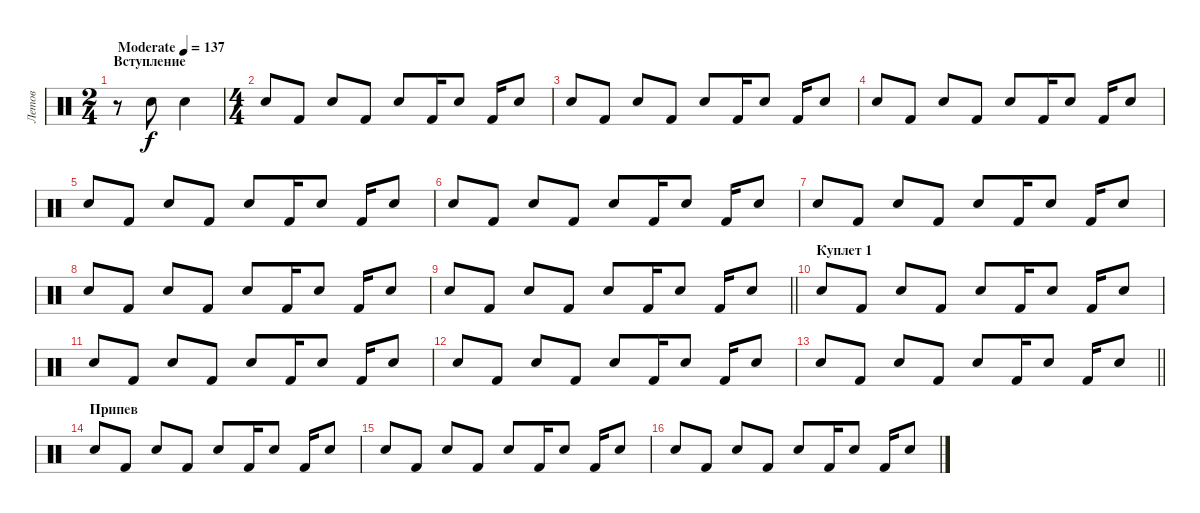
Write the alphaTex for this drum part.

\track ("Летов" "Летов") {instrument percussion}
\staff {score}
\articulation defaults
\ts (2 4)
\section ("" "Вступление")
\tempo (137 "Moderate")
\clef neutral
\ks c
r.8{dy f} "Electric Snare (hit)".8 "Electric Snare (hit)".4 |
\ts (4 4)
"Electric Snare (hit)".8 "Kick (hit) 2".8 "Electric Snare (hit)".8 "Kick (hit) 2".8 "Electric Snare (hit)".8 "Kick (hit) 2".16 "Electric Snare (hit)".8 "Kick (hit) 2".16 "Electric Snare (hit)".8 |
"Electric Snare (hit)".8 "Kick (hit) 2".8 "Electric Snare (hit)".8 "Kick (hit) 2".8 "Electric Snare (hit)".8 "Kick (hit) 2".16 "Electric Snare (hit)".8 "Kick (hit) 2".16 "Electric Snare (hit)".8 |
"Electric Snare (hit)".8 "Kick (hit) 2".8 "Electric Snare (hit)".8 "Kick (hit) 2".8 "Electric Snare (hit)".8 "Kick (hit) 2".16 "Electric Snare (hit)".8 "Kick (hit) 2".16 "Electric Snare (hit)".8 |
"Electric Snare (hit)".8 "Kick (hit) 2".8 "Electric Snare (hit)".8 "Kick (hit) 2".8 "Electric Snare (hit)".8 "Kick (hit) 2".16 "Electric Snare (hit)".8 "Kick (hit) 2".16 "Electric Snare (hit)".8 |
"Electric Snare (hit)".8 "Kick (hit) 2".8 "Electric Snare (hit)".8 "Kick (hit) 2".8 "Electric Snare (hit)".8 "Kick (hit) 2".16 "Electric Snare (hit)".8 "Kick (hit) 2".16 "Electric Snare (hit)".8 |
"Electric Snare (hit)".8 "Kick (hit) 2".8 "Electric Snare (hit)".8 "Kick (hit) 2".8 "Electric Snare (hit)".8 "Kick (hit) 2".16 "Electric Snare (hit)".8 "Kick (hit) 2".16 "Electric Snare (hit)".8 |
"Electric Snare (hit)".8 "Kick (hit) 2".8 "Electric Snare (hit)".8 "Kick (hit) 2".8 "Electric Snare (hit)".8 "Kick (hit) 2".16 "Electric Snare (hit)".8 "Kick (hit) 2".16 "Electric Snare (hit)".8 |
\barLineRight lightlight "Electric Snare (hit)".8 "Kick (hit) 2".8 "Electric Snare (hit)".8 "Kick (hit) 2".8 "Electric Snare (hit)".8 "Kick (hit) 2".16 "Electric Snare (hit)".8 "Kick (hit) 2".16 "Electric Snare (hit)".8
|
\section ("" "Куплет 1")
"Electric Snare (hit)".8 "Kick (hit) 2".8 "Electric Snare (hit)".8 "Kick (hit) 2".8 "Electric Snare (hit)".8 "Kick (hit) 2".16 "Electric Snare (hit)".8 "Kick (hit) 2".16 "Electric Snare (hit)".8 |
"Electric Snare (hit)".8 "Kick (hit) 2".8 "Electric Snare (hit)".8 "Kick (hit) 2".8 "Electric Snare (hit)".8 "Kick (hit) 2".16 "Electric Snare (hit)".8 "Kick (hit) 2".16 "Electric Snare (hit)".8 |
"Electric Snare (hit)".8 "Kick (hit) 2".8 "Electric Snare (hit)".8 "Kick (hit) 2".8 "Electric Snare (hit)".8 "Kick (hit) 2".16 "Electric Snare (hit)".8 "Kick (hit) 2".16 "Electric Snare (hit)".8 |
\barLineRight lightlight "Electric Snare (hit)".8 "Kick (hit) 2".8 "Electric Snare (hit)".8 "Kick (hit) 2".8 "Electric Snare (hit)".8 "Kick (hit) 2".16 "Electric Snare (hit)".8 "Kick (hit) 2".16 "Electric Snare (hit)".8
|
\section ("" "Припев")
"Electric Snare (hit)".8 "Kick (hit) 2".8 "Electric Snare (hit)".8 "Kick (hit) 2".8 "Electric Snare (hit)".8 "Kick (hit) 2".16 "Electric Snare (hit)".8 "Kick (hit) 2".16 "Electric Snare (hit)".8 |
"Electric Snare (hit)".8 "Kick (hit) 2".8 "Electric Snare (hit)".8 "Kick (hit) 2".8 "Electric Snare (hit)".8 "Kick (hit) 2".16 "Electric Snare (hit)".8 "Kick (hit) 2".16 "Electric Snare (hit)".8 |
"Electric Snare (hit)".8 "Kick (hit) 2".8 "Electric Snare (hit)".8 "Kick (hit) 2".8 "Electric Snare (hit)".8 "Kick (hit) 2".16 "Electric Snare (hit)".8 "Kick (hit) 2".16 "Electric Snare (hit)".8
